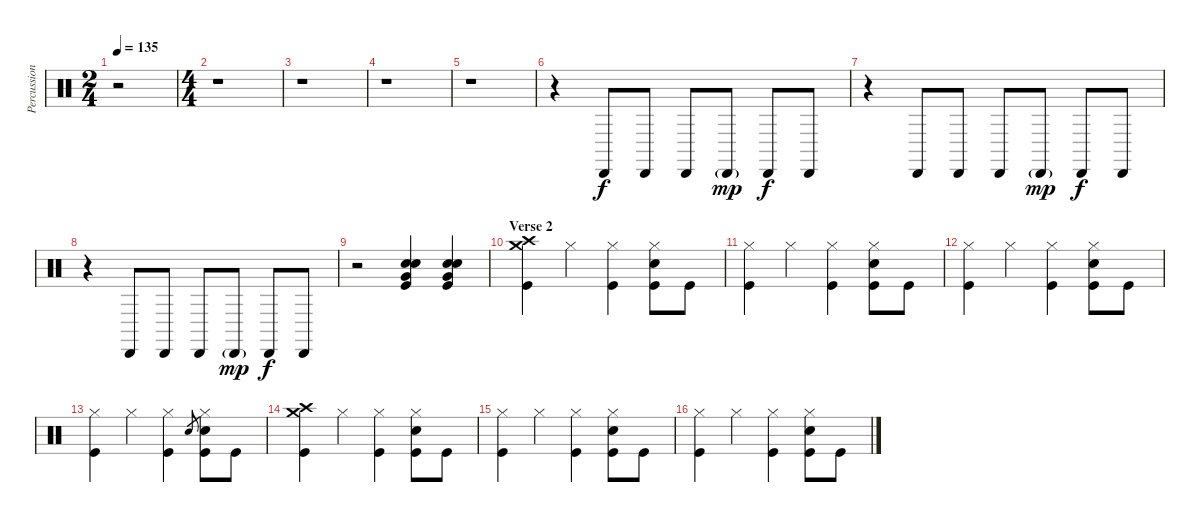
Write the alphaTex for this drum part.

\track ("Percussions" "Percussion") {instrument percussion}
\staff {score}
\articulation defaults
\ts (2 4)
\tempo 135
\clef neutral
\ks c
r.2{dy f} |
\ts (4 4)
r.1 |
r.1 |
r.1 |
r.1 |
r.4{volume 8} "Cabasa (hit)".8 "Cabasa (hit)".8 "Cabasa (hit)".8 "Cabasa (hit)"{g}.8{dy mp} "Cabasa (hit)".8{dy f} "Cabasa (hit)".8 |
r.4 "Cabasa (hit)".8 "Cabasa (hit)".8 "Cabasa (hit)".8 "Cabasa (hit)"{g}.8{dy mp} "Cabasa (hit)".8{dy f} "Cabasa (hit)".8 |
r.4 "Cabasa (hit)".8 "Cabasa (hit)".8 "Cabasa (hit)".8 "Cabasa (hit)"{g}.8{dy mp} "Cabasa (hit)".8{dy f} "Cabasa (hit)".8 |
r.2{volume 13} ("Electric Snare (hit)" "Snare (hit) 2" "Very Low Tom (hit)" "Kick (hit)").4 ("Electric Snare (hit)" "Snare (hit) 2" "Very Low Tom (hit)" "Kick (hit)").4 |
\section ("" "Verse 2")
("Crash high (hit)" "Crash medium (hit)" "Kick (hit)").4 "Hi-Hat (closed)".4 ("Hi-Hat (closed)" "Kick (hit)").4 ("Hi-Hat (closed)" "Electric Snare (hit)" "Kick (hit)").8 "Kick (hit)".8 |
("Hi-Hat (closed)" "Kick (hit)").4 "Hi-Hat (closed)".4 ("Hi-Hat (closed)" "Kick (hit)").4 ("Hi-Hat (closed)" "Electric Snare (hit)" "Kick (hit)").8 "Kick (hit)".8 |
("Hi-Hat (closed)" "Kick (hit)").4 "Hi-Hat (closed)".4 ("Hi-Hat (closed)" "Kick (hit)").4 ("Hi-Hat (closed)" "Electric Snare (hit)" "Kick (hit)").8 "Kick (hit)".8 |
("Hi-Hat (closed)" "Kick (hit)").4 "Hi-Hat (closed)".4 ("Hi-Hat (closed)" "Kick (hit)").4 "Electric Snare (hit)".8{gr} ("Hi-Hat (closed)" "Electric Snare (hit)" "Kick (hit)").8 "Kick (hit)".8 |
("Crash high (hit)" "Crash medium (hit)" "Kick (hit)").4 "Hi-Hat (closed)".4 ("Hi-Hat (closed)" "Kick (hit)").4 ("Hi-Hat (closed)" "Electric Snare (hit)" "Kick (hit)").8 "Kick (hit)".8 |
("Hi-Hat (closed)" "Kick (hit)").4 "Hi-Hat (closed)".4 ("Hi-Hat (closed)" "Kick (hit)").4 ("Hi-Hat (closed)" "Electric Snare (hit)" "Kick (hit)").8 "Kick (hit)".8 |
("Hi-Hat (closed)" "Kick (hit)").4 "Hi-Hat (closed)".4 ("Hi-Hat (closed)" "Kick (hit)").4 ("Hi-Hat (closed)" "Electric Snare (hit)" "Kick (hit)").8 "Kick (hit)".8
